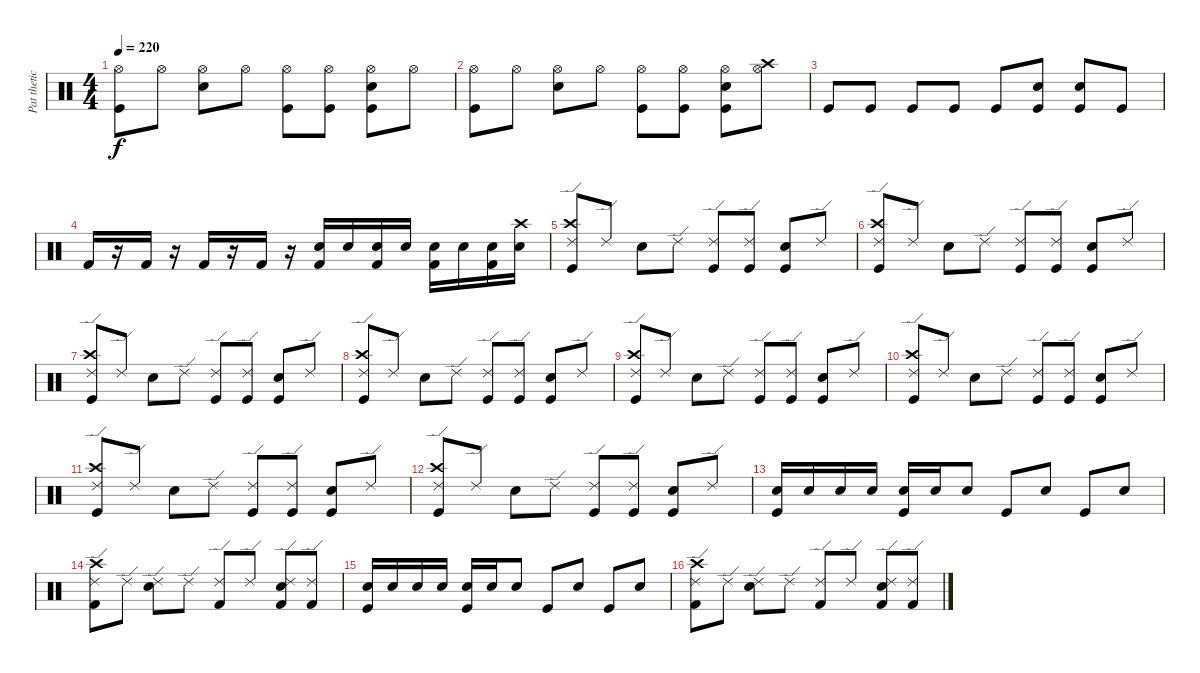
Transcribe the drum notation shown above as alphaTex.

\track ("Pat thetic " "Pat thetic") {instrument percussion}
\staff {score}
\articulation defaults
\ts (4 4)
\tempo 220
\clef neutral
\ks c
("Kick (hit)" "Hi-Hat (open)").8{dy f} "Hi-Hat (open)".8 ("Electric Snare (hit)" "Hi-Hat (open)").8 "Hi-Hat (open)".8 ("Kick (hit)" "Hi-Hat (open)").8 ("Kick (hit)" "Hi-Hat (open)").8 ("Kick (hit)" "Electric Snare (hit)" "Hi-Hat (open)").8 "Hi-Hat (open)".8 |
("Kick (hit)" "Hi-Hat (open)").8 "Hi-Hat (open)".8 ("Electric Snare (hit)" "Hi-Hat (open)").8 "Hi-Hat (open)".8 ("Kick (hit)" "Hi-Hat (open)").8 ("Kick (hit)" "Hi-Hat (open)").8 ("Kick (hit)" "Electric Snare (hit)" "Hi-Hat (open)").8 ("Crash high (hit)" "Hi-Hat (open)").8 |
"Kick (hit)".8 "Kick (hit)".8 "Kick (hit)".8 "Kick (hit)".8 "Kick (hit)".8 ("Kick (hit)" "Electric Snare (hit)").8 ("Kick (hit)" "Electric Snare (hit)").8 "Kick (hit)".8 |
"Kick (hit) 2".16 r.16 "Kick (hit) 2".16 r.16 "Kick (hit) 2".16 r.16 "Kick (hit) 2".16 r.16 ("Kick (hit) 2" "Electric Snare (hit)").16 "Electric Snare (hit)".16 ("Kick (hit) 2" "Electric Snare (hit)").16 "Electric Snare (hit)".16 ("Kick (hit) 2" "Electric Snare (hit)").16 "Electric Snare (hit)".16 ("Kick (hit) 2" "Electric Snare (hit)").16 ("Electric Snare (hit)" "Crash high (hit)").16 |
("Kick (hit)" "Crash high (hit)" "Ride (edge) 2").8 "Ride (edge) 2".8 "Electric Snare (hit)".8 "Ride (edge) 2".8 ("Kick (hit)" "Ride (edge) 2").8 ("Kick (hit)" "Ride (edge) 2").8 ("Kick (hit)" "Electric Snare (hit)").8 "Ride (edge) 2".8 |
("Kick (hit)" "Crash high (hit)" "Ride (edge) 2").8 "Ride (edge) 2".8 "Electric Snare (hit)".8 "Ride (edge) 2".8 ("Kick (hit)" "Ride (edge) 2").8 ("Kick (hit)" "Ride (edge) 2").8 ("Kick (hit)" "Electric Snare (hit)").8 "Ride (edge) 2".8 |
("Kick (hit)" "Crash high (hit)" "Ride (edge) 2").8 "Ride (edge) 2".8 "Electric Snare (hit)".8 "Ride (edge) 2".8 ("Kick (hit)" "Ride (edge) 2").8 ("Kick (hit)" "Ride (edge) 2").8 ("Kick (hit)" "Electric Snare (hit)").8 "Ride (edge) 2".8 |
("Kick (hit)" "Crash high (hit)" "Ride (edge) 2").8 "Ride (edge) 2".8 "Electric Snare (hit)".8 "Ride (edge) 2".8 ("Kick (hit)" "Ride (edge) 2").8 ("Kick (hit)" "Ride (edge) 2").8 ("Kick (hit)" "Electric Snare (hit)").8 "Ride (edge) 2".8 |
("Kick (hit)" "Crash high (hit)" "Ride (edge) 2").8 "Ride (edge) 2".8 "Electric Snare (hit)".8 "Ride (edge) 2".8 ("Kick (hit)" "Ride (edge) 2").8 ("Kick (hit)" "Ride (edge) 2").8 ("Kick (hit)" "Electric Snare (hit)").8 "Ride (edge) 2".8 |
("Kick (hit)" "Crash high (hit)" "Ride (edge) 2").8 "Ride (edge) 2".8 "Electric Snare (hit)".8 "Ride (edge) 2".8 ("Kick (hit)" "Ride (edge) 2").8 ("Kick (hit)" "Ride (edge) 2").8 ("Kick (hit)" "Electric Snare (hit)").8 "Ride (edge) 2".8 |
("Kick (hit)" "Crash high (hit)" "Ride (edge) 2").8 "Ride (edge) 2".8 "Electric Snare (hit)".8 "Ride (edge) 2".8 ("Kick (hit)" "Ride (edge) 2").8 ("Kick (hit)" "Ride (edge) 2").8 ("Kick (hit)" "Electric Snare (hit)").8 "Ride (edge) 2".8 |
("Kick (hit)" "Crash high (hit)" "Ride (edge) 2").8 "Ride (edge) 2".8 "Electric Snare (hit)".8 "Ride (edge) 2".8 ("Kick (hit)" "Ride (edge) 2").8 ("Kick (hit)" "Ride (edge) 2").8 ("Kick (hit)" "Electric Snare (hit)").8 "Ride (edge) 2".8 |
("Kick (hit)" "Electric Snare (hit)").16 "Electric Snare (hit)".16 "Electric Snare (hit)".16 "Electric Snare (hit)".16 ("Kick (hit)" "Electric Snare (hit)").16 "Electric Snare (hit)".16 "Electric Snare (hit)".8 "Kick (hit)".8 "Electric Snare (hit)".8 "Kick (hit)".8 "Electric Snare (hit)".8 |
("Kick (hit) 2" "Crash high (hit)" "Ride (edge) 2").8 "Ride (edge) 2".8 ("Electric Snare (hit)" "Ride (edge) 2").8 "Ride (edge) 2".8 ("Kick (hit) 2" "Ride (edge) 2").8 "Ride (edge) 2".8 ("Kick (hit) 2" "Electric Snare (hit)" "Ride (edge) 2").8 ("Kick (hit) 2" "Ride (edge) 2").8 |
("Kick (hit)" "Electric Snare (hit)").16 "Electric Snare (hit)".16 "Electric Snare (hit)".16 "Electric Snare (hit)".16 ("Kick (hit)" "Electric Snare (hit)").16 "Electric Snare (hit)".16 "Electric Snare (hit)".8 "Kick (hit)".8 "Electric Snare (hit)".8 "Kick (hit)".8 "Electric Snare (hit)".8 |
("Kick (hit) 2" "Crash high (hit)" "Ride (edge) 2").8 "Ride (edge) 2".8 ("Electric Snare (hit)" "Ride (edge) 2").8 "Ride (edge) 2".8 ("Kick (hit) 2" "Ride (edge) 2").8 "Ride (edge) 2".8 ("Kick (hit) 2" "Electric Snare (hit)" "Ride (edge) 2").8 ("Kick (hit) 2" "Ride (edge) 2").8
